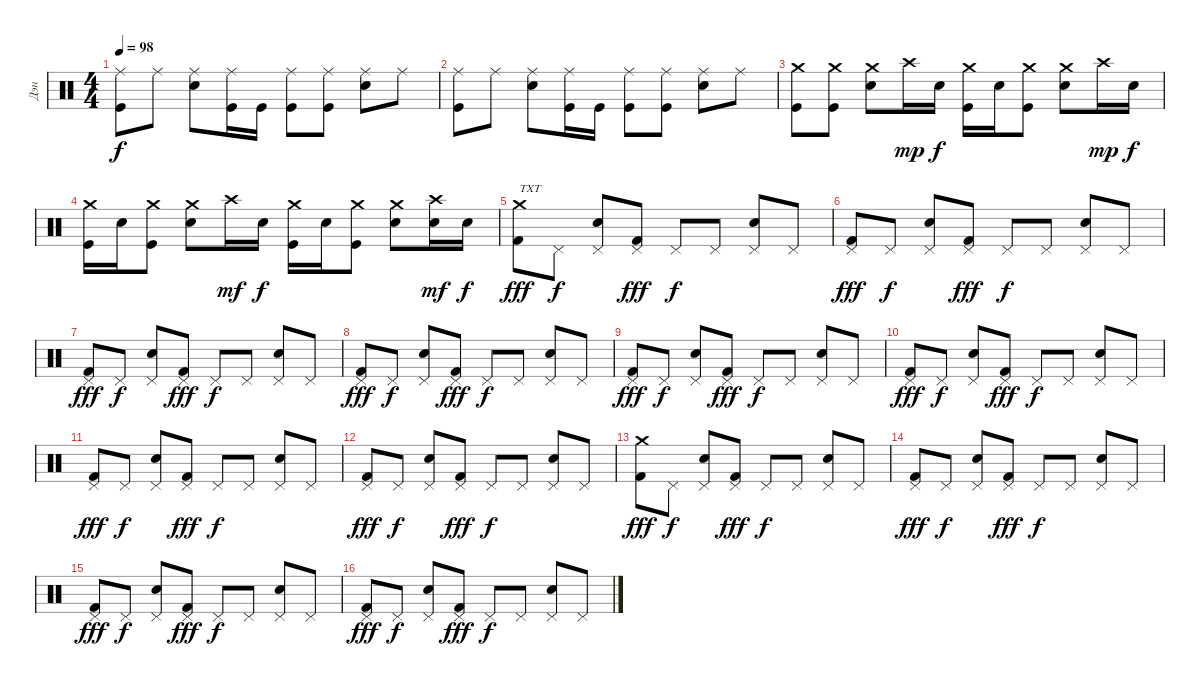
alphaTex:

\track ("Дэн" "Дэн") {instrument percussion}
\staff {score}
\articulation defaults
\ts (4 4)
\tempo 98
\clef neutral
\ks c
("Kick (hit)" "Ride (middle)").8{dy f} "Ride (middle)".8 ("Electric Snare (hit)" "Ride (middle)").8 ("Kick (hit)" "Ride (middle)").16 "Kick (hit)".16 ("Kick (hit)" "Ride (middle)").8 ("Kick (hit)" "Ride (middle)").8 ("Electric Snare (hit)" "Ride (middle)").8 "Ride (middle)".8 |
("Kick (hit)" "Ride (middle)").8 "Ride (middle)".8 ("Electric Snare (hit)" "Ride (middle)").8 ("Kick (hit)" "Ride (middle)").16 "Kick (hit)".16 ("Kick (hit)" "Ride (middle)").8 ("Kick (hit)" "Ride (middle)").8 ("Electric Snare (hit)" "Ride (middle)").8 "Ride (middle)".8 |
("Kick (hit)" "Crash medium (hit)").8 ("Kick (hit)" "Crash medium (hit)").8 ("Electric Snare (hit)" "Crash medium (hit)").8 "Crash high (hit)".16{dy mp} "Electric Snare (hit)".16{dy f} ("Kick (hit)" "Crash medium (hit)").16 "Electric Snare (hit)".16 ("Kick (hit)" "Crash medium (hit)").8 ("Electric Snare (hit)" "Crash medium (hit)").8 "Crash high (hit)".16{dy mp} "Electric Snare (hit)".16{dy f} |
("Kick (hit)" "Crash medium (hit)").16 "Electric Snare (hit)".16 ("Kick (hit)" "Crash medium (hit)").8 ("Electric Snare (hit)" "Crash medium (hit)").8 "Crash high (hit)".16{dy mf} "Electric Snare (hit)".16{dy f} ("Kick (hit)" "Crash medium (hit)").16 "Electric Snare (hit)".16 ("Kick (hit)" "Crash medium (hit)").8 ("Electric Snare (hit)" "Crash medium (hit)").8 ("Electric Snare (hit)" "Crash high (hit)").16{dy mf} "Electric Snare (hit)".16{dy f} |
("Kick (hit) 2" "Crash medium (hit)").8{txt "TXT" dy fff} "Pedal Hi-Hat (hit)".8{dy f} ("Electric Snare (hit)" "Pedal Hi-Hat (hit)").8 ("Kick (hit) 2" "Pedal Hi-Hat (hit)").8{dy fff} "Pedal Hi-Hat (hit)".8{dy f} "Pedal Hi-Hat (hit)".8 ("Electric Snare (hit)" "Pedal Hi-Hat (hit)").8 "Pedal Hi-Hat (hit)".8 |
("Kick (hit) 2" "Pedal Hi-Hat (hit)").8{dy fff} "Pedal Hi-Hat (hit)".8{dy f} ("Electric Snare (hit)" "Pedal Hi-Hat (hit)").8 ("Kick (hit) 2" "Pedal Hi-Hat (hit)").8{dy fff} "Pedal Hi-Hat (hit)".8{dy f} "Pedal Hi-Hat (hit)".8 ("Electric Snare (hit)" "Pedal Hi-Hat (hit)").8 "Pedal Hi-Hat (hit)".8 |
("Kick (hit) 2" "Pedal Hi-Hat (hit)").8{dy fff} "Pedal Hi-Hat (hit)".8{dy f} ("Electric Snare (hit)" "Pedal Hi-Hat (hit)").8 ("Kick (hit) 2" "Pedal Hi-Hat (hit)").8{dy fff} "Pedal Hi-Hat (hit)".8{dy f} "Pedal Hi-Hat (hit)".8 ("Electric Snare (hit)" "Pedal Hi-Hat (hit)").8 "Pedal Hi-Hat (hit)".8 |
("Kick (hit) 2" "Pedal Hi-Hat (hit)").8{dy fff} "Pedal Hi-Hat (hit)".8{dy f} ("Electric Snare (hit)" "Pedal Hi-Hat (hit)").8 ("Kick (hit) 2" "Pedal Hi-Hat (hit)").8{dy fff} "Pedal Hi-Hat (hit)".8{dy f} "Pedal Hi-Hat (hit)".8 ("Electric Snare (hit)" "Pedal Hi-Hat (hit)").8 "Pedal Hi-Hat (hit)".8 |
("Kick (hit) 2" "Pedal Hi-Hat (hit)").8{dy fff} "Pedal Hi-Hat (hit)".8{dy f} ("Electric Snare (hit)" "Pedal Hi-Hat (hit)").8 ("Kick (hit) 2" "Pedal Hi-Hat (hit)").8{dy fff} "Pedal Hi-Hat (hit)".8{dy f} "Pedal Hi-Hat (hit)".8 ("Electric Snare (hit)" "Pedal Hi-Hat (hit)").8 "Pedal Hi-Hat (hit)".8 |
("Kick (hit) 2" "Pedal Hi-Hat (hit)").8{dy fff} "Pedal Hi-Hat (hit)".8{dy f} ("Electric Snare (hit)" "Pedal Hi-Hat (hit)").8 ("Kick (hit) 2" "Pedal Hi-Hat (hit)").8{dy fff} "Pedal Hi-Hat (hit)".8{dy f} "Pedal Hi-Hat (hit)".8 ("Electric Snare (hit)" "Pedal Hi-Hat (hit)").8 "Pedal Hi-Hat (hit)".8 |
("Kick (hit) 2" "Pedal Hi-Hat (hit)").8{dy fff} "Pedal Hi-Hat (hit)".8{dy f} ("Electric Snare (hit)" "Pedal Hi-Hat (hit)").8 ("Kick (hit) 2" "Pedal Hi-Hat (hit)").8{dy fff} "Pedal Hi-Hat (hit)".8{dy f} "Pedal Hi-Hat (hit)".8 ("Electric Snare (hit)" "Pedal Hi-Hat (hit)").8 "Pedal Hi-Hat (hit)".8 |
("Kick (hit) 2" "Pedal Hi-Hat (hit)").8{dy fff} "Pedal Hi-Hat (hit)".8{dy f} ("Electric Snare (hit)" "Pedal Hi-Hat (hit)").8 ("Kick (hit) 2" "Pedal Hi-Hat (hit)").8{dy fff} "Pedal Hi-Hat (hit)".8{dy f} "Pedal Hi-Hat (hit)".8 ("Electric Snare (hit)" "Pedal Hi-Hat (hit)").8 "Pedal Hi-Hat (hit)".8 |
("Kick (hit) 2" "Crash medium (hit)").8{dy fff} "Pedal Hi-Hat (hit)".8{dy f} ("Electric Snare (hit)" "Pedal Hi-Hat (hit)").8 ("Kick (hit) 2" "Pedal Hi-Hat (hit)").8{dy fff} "Pedal Hi-Hat (hit)".8{dy f} "Pedal Hi-Hat (hit)".8 ("Electric Snare (hit)" "Pedal Hi-Hat (hit)").8 "Pedal Hi-Hat (hit)".8 |
("Kick (hit) 2" "Pedal Hi-Hat (hit)").8{dy fff} "Pedal Hi-Hat (hit)".8{dy f} ("Electric Snare (hit)" "Pedal Hi-Hat (hit)").8 ("Kick (hit) 2" "Pedal Hi-Hat (hit)").8{dy fff} "Pedal Hi-Hat (hit)".8{dy f} "Pedal Hi-Hat (hit)".8 ("Electric Snare (hit)" "Pedal Hi-Hat (hit)").8 "Pedal Hi-Hat (hit)".8 |
("Kick (hit) 2" "Pedal Hi-Hat (hit)").8{dy fff} "Pedal Hi-Hat (hit)".8{dy f} ("Electric Snare (hit)" "Pedal Hi-Hat (hit)").8 ("Kick (hit) 2" "Pedal Hi-Hat (hit)").8{dy fff} "Pedal Hi-Hat (hit)".8{dy f} "Pedal Hi-Hat (hit)".8 ("Electric Snare (hit)" "Pedal Hi-Hat (hit)").8 "Pedal Hi-Hat (hit)".8 |
("Kick (hit) 2" "Pedal Hi-Hat (hit)").8{dy fff} "Pedal Hi-Hat (hit)".8{dy f} ("Electric Snare (hit)" "Pedal Hi-Hat (hit)").8 ("Kick (hit) 2" "Pedal Hi-Hat (hit)").8{dy fff} "Pedal Hi-Hat (hit)".8{dy f} "Pedal Hi-Hat (hit)".8 ("Electric Snare (hit)" "Pedal Hi-Hat (hit)").8 "Pedal Hi-Hat (hit)".8
